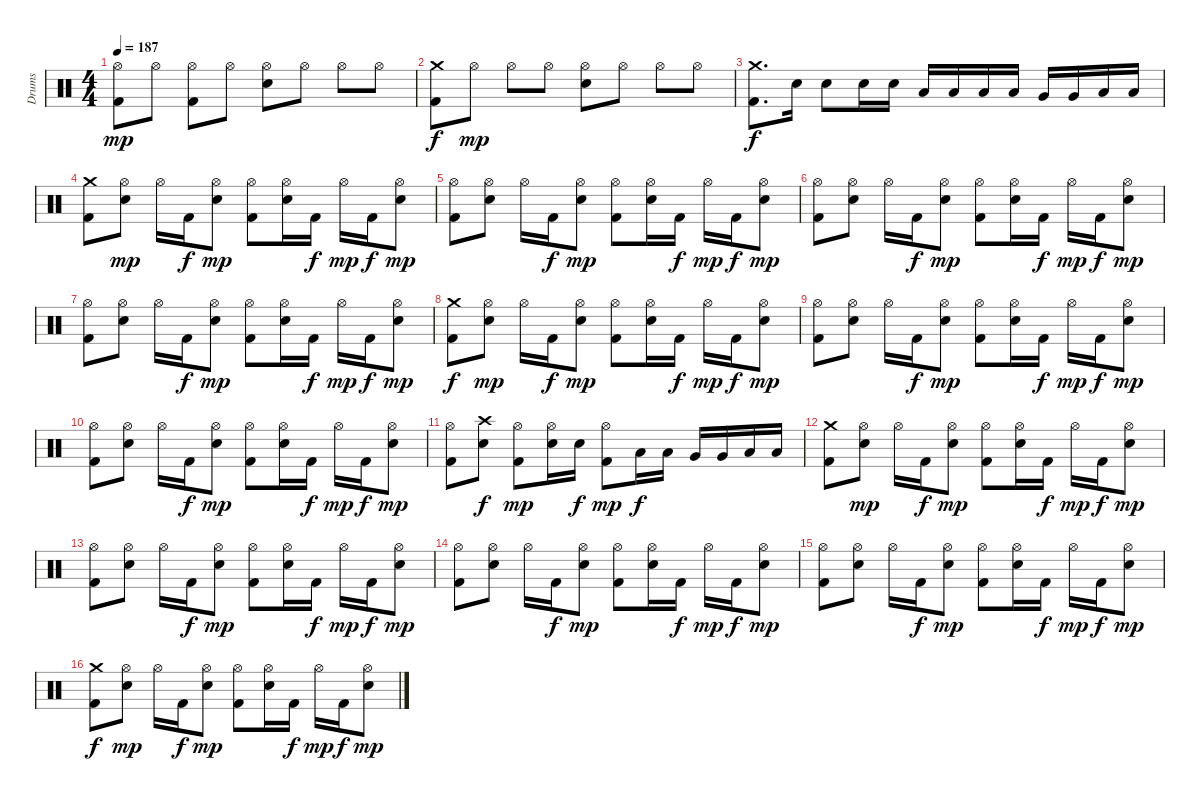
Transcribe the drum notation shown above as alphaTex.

\track ("Drums" "Drums") {instrument percussion}
\staff {score}
\articulation defaults
\ts (4 4)
\tempo 187
\clef neutral
\ks c
("Hi-Hat (open)" "Kick (hit) 2").8{dy mp} "Hi-Hat (open)".8 ("Hi-Hat (open)" "Kick (hit) 2").8 "Hi-Hat (open)".8 ("Hi-Hat (open)" "Snare (hit) 2").8 "Hi-Hat (open)".8 "Hi-Hat (open)".8 "Hi-Hat (open)".8 |
("Crash medium (hit)" "Kick (hit) 2").8{dy f} "Hi-Hat (open)".8{dy mp} "Hi-Hat (open)".8 "Hi-Hat (open)".8 ("Hi-Hat (open)" "Snare (hit) 2").8 "Hi-Hat (open)".8 "Hi-Hat (open)".8 "Hi-Hat (open)".8 |
("Crash medium (hit)" "Kick (hit) 2").8{d dy f} "Snare (hit) 2".16 "Snare (hit) 2".8 "Snare (hit) 2".16 "Snare (hit) 2".16 "Low Tom (hit)".16 "Low Tom (hit)".16 "Low Tom (hit)".16 "Low Tom (hit)".16 "Very Low Tom (hit)".16 "Very Low Tom (hit)".16 "Low Floor Tom (hit)".16 "Low Floor Tom (hit)".16 |
("Crash medium (hit)" "Kick (hit) 2").8 ("Hi-Hat (open)" "Snare (hit) 2").8{dy mp} "Hi-Hat (open)".16 "Kick (hit) 2".16{dy f} ("Hi-Hat (open)" "Snare (hit) 2").8{dy mp} ("Hi-Hat (open)" "Kick (hit) 2").8 ("Hi-Hat (open)" "Snare (hit) 2").16 "Kick (hit) 2".16{dy f} "Hi-Hat (open)".16{dy mp} "Kick (hit) 2".16{dy f} ("Hi-Hat (open)" "Snare (hit) 2").8{dy mp} |
("Hi-Hat (open)" "Kick (hit) 2").8 ("Hi-Hat (open)" "Snare (hit) 2").8 "Hi-Hat (open)".16 "Kick (hit) 2".16{dy f} ("Hi-Hat (open)" "Snare (hit) 2").8{dy mp} ("Hi-Hat (open)" "Kick (hit) 2").8 ("Hi-Hat (open)" "Snare (hit) 2").16 "Kick (hit) 2".16{dy f} "Hi-Hat (open)".16{dy mp} "Kick (hit) 2".16{dy f} ("Hi-Hat (open)" "Snare (hit) 2").8{dy mp} |
("Hi-Hat (open)" "Kick (hit) 2").8 ("Hi-Hat (open)" "Snare (hit) 2").8 "Hi-Hat (open)".16 "Kick (hit) 2".16{dy f} ("Hi-Hat (open)" "Snare (hit) 2").8{dy mp} ("Hi-Hat (open)" "Kick (hit) 2").8 ("Hi-Hat (open)" "Snare (hit) 2").16 "Kick (hit) 2".16{dy f} "Hi-Hat (open)".16{dy mp} "Kick (hit) 2".16{dy f} ("Hi-Hat (open)" "Snare (hit) 2").8{dy mp} |
("Hi-Hat (open)" "Kick (hit) 2").8 ("Hi-Hat (open)" "Snare (hit) 2").8 "Hi-Hat (open)".16 "Kick (hit) 2".16{dy f} ("Hi-Hat (open)" "Snare (hit) 2").8{dy mp} ("Hi-Hat (open)" "Kick (hit) 2").8 ("Hi-Hat (open)" "Snare (hit) 2").16 "Kick (hit) 2".16{dy f} "Hi-Hat (open)".16{dy mp} "Kick (hit) 2".16{dy f} ("Hi-Hat (open)" "Snare (hit) 2").8{dy mp} |
("Crash medium (hit)" "Kick (hit) 2").8{dy f} ("Hi-Hat (open)" "Snare (hit) 2").8{dy mp} "Hi-Hat (open)".16 "Kick (hit) 2".16{dy f} ("Hi-Hat (open)" "Snare (hit) 2").8{dy mp} ("Hi-Hat (open)" "Kick (hit) 2").8 ("Hi-Hat (open)" "Snare (hit) 2").16 "Kick (hit) 2".16{dy f} "Hi-Hat (open)".16{dy mp} "Kick (hit) 2".16{dy f} ("Hi-Hat (open)" "Snare (hit) 2").8{dy mp} |
("Hi-Hat (open)" "Kick (hit) 2").8 ("Hi-Hat (open)" "Snare (hit) 2").8 "Hi-Hat (open)".16 "Kick (hit) 2".16{dy f} ("Hi-Hat (open)" "Snare (hit) 2").8{dy mp} ("Hi-Hat (open)" "Kick (hit) 2").8 ("Hi-Hat (open)" "Snare (hit) 2").16 "Kick (hit) 2".16{dy f} "Hi-Hat (open)".16{dy mp} "Kick (hit) 2".16{dy f} ("Hi-Hat (open)" "Snare (hit) 2").8{dy mp} |
("Hi-Hat (open)" "Kick (hit) 2").8 ("Hi-Hat (open)" "Snare (hit) 2").8 "Hi-Hat (open)".16 "Kick (hit) 2".16{dy f} ("Hi-Hat (open)" "Snare (hit) 2").8{dy mp} ("Hi-Hat (open)" "Kick (hit) 2").8 ("Hi-Hat (open)" "Snare (hit) 2").16 "Kick (hit) 2".16{dy f} "Hi-Hat (open)".16{dy mp} "Kick (hit) 2".16{dy f} ("Hi-Hat (open)" "Snare (hit) 2").8{dy mp} |
("Hi-Hat (open)" "Kick (hit) 2").8 ("Crash high (hit)" "Snare (hit) 2").8{dy f} ("Hi-Hat (open)" "Kick (hit) 2").8{dy mp} ("Hi-Hat (open)" "Snare (hit) 2").16 "Snare (hit) 2".16{dy f} ("Hi-Hat (open)" "Kick (hit) 2").8{dy mp} "Low Tom (hit)".16{dy f} "Low Tom (hit)".16 "Very Low Tom (hit)".16 "Very Low Tom (hit)".16 "Low Floor Tom (hit)".16 "Low Floor Tom (hit)".16 |
("Crash medium (hit)" "Kick (hit) 2").8 ("Hi-Hat (open)" "Snare (hit) 2").8{dy mp} "Hi-Hat (open)".16 "Kick (hit) 2".16{dy f} ("Hi-Hat (open)" "Snare (hit) 2").8{dy mp} ("Hi-Hat (open)" "Kick (hit) 2").8 ("Hi-Hat (open)" "Snare (hit) 2").16 "Kick (hit) 2".16{dy f} "Hi-Hat (open)".16{dy mp} "Kick (hit) 2".16{dy f} ("Hi-Hat (open)" "Snare (hit) 2").8{dy mp} |
("Hi-Hat (open)" "Kick (hit) 2").8 ("Hi-Hat (open)" "Snare (hit) 2").8 "Hi-Hat (open)".16 "Kick (hit) 2".16{dy f} ("Hi-Hat (open)" "Snare (hit) 2").8{dy mp} ("Hi-Hat (open)" "Kick (hit) 2").8 ("Hi-Hat (open)" "Snare (hit) 2").16 "Kick (hit) 2".16{dy f} "Hi-Hat (open)".16{dy mp} "Kick (hit) 2".16{dy f} ("Hi-Hat (open)" "Snare (hit) 2").8{dy mp} |
("Hi-Hat (open)" "Kick (hit) 2").8 ("Hi-Hat (open)" "Snare (hit) 2").8 "Hi-Hat (open)".16 "Kick (hit) 2".16{dy f} ("Hi-Hat (open)" "Snare (hit) 2").8{dy mp} ("Hi-Hat (open)" "Kick (hit) 2").8 ("Hi-Hat (open)" "Snare (hit) 2").16 "Kick (hit) 2".16{dy f} "Hi-Hat (open)".16{dy mp} "Kick (hit) 2".16{dy f} ("Hi-Hat (open)" "Snare (hit) 2").8{dy mp} |
("Hi-Hat (open)" "Kick (hit) 2").8 ("Hi-Hat (open)" "Snare (hit) 2").8 "Hi-Hat (open)".16 "Kick (hit) 2".16{dy f} ("Hi-Hat (open)" "Snare (hit) 2").8{dy mp} ("Hi-Hat (open)" "Kick (hit) 2").8 ("Hi-Hat (open)" "Snare (hit) 2").16 "Kick (hit) 2".16{dy f} "Hi-Hat (open)".16{dy mp} "Kick (hit) 2".16{dy f} ("Hi-Hat (open)" "Snare (hit) 2").8{dy mp} |
("Crash medium (hit)" "Kick (hit) 2").8{dy f} ("Hi-Hat (open)" "Snare (hit) 2").8{dy mp} "Hi-Hat (open)".16 "Kick (hit) 2".16{dy f} ("Hi-Hat (open)" "Snare (hit) 2").8{dy mp} ("Hi-Hat (open)" "Kick (hit) 2").8 ("Hi-Hat (open)" "Snare (hit) 2").16 "Kick (hit) 2".16{dy f} "Hi-Hat (open)".16{dy mp} "Kick (hit) 2".16{dy f} ("Hi-Hat (open)" "Snare (hit) 2").8{dy mp}
